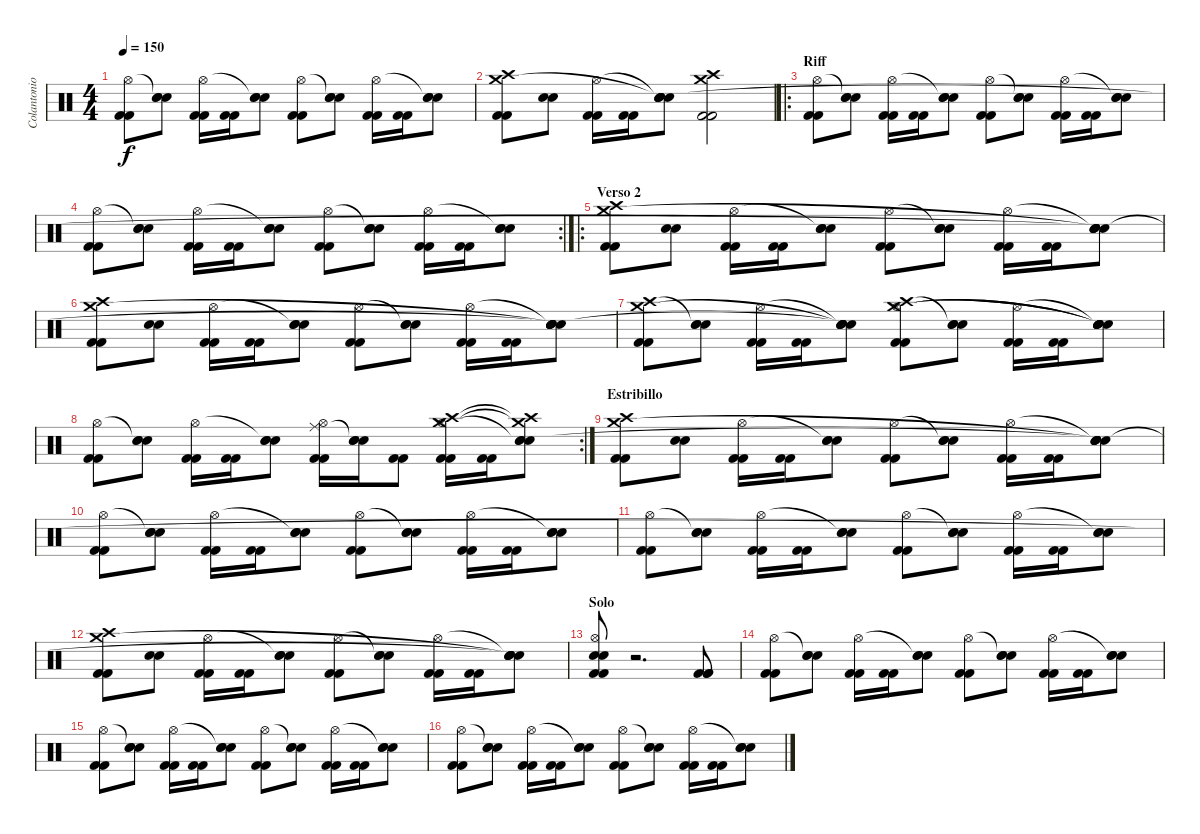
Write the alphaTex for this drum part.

\track ("Colantonio (Bateria)" "Colantonio") {instrument percussion}
\staff {score}
\articulation defaults
\ts (4 4)
\tempo 150
\clef neutral
\ks c
("Kick (hit) 2" "Kick (hit) 2" "Hi-Hat (open)").8{dy f} ("Snare (hit) 2" "Snare (hit) 2" "Snare (hit)"{t}).8 ("Kick (hit) 2" "Kick (hit) 2" "Hi-Hat (open)").16 ("Kick (hit) 2" "Kick (hit) 2").16 ("Snare (hit) 2" "Snare (hit) 2" "Snare (hit)"{t}).8 ("Kick (hit) 2" "Kick (hit) 2" "Hi-Hat (open)").8 ("Snare (hit) 2" "Snare (hit) 2" "Snare (hit)"{t}).8 ("Kick (hit) 2" "Kick (hit) 2" "Hi-Hat (open)").16 ("Kick (hit) 2" "Kick (hit) 2").16 ("Snare (hit) 2" "Snare (hit) 2" "Snare (hit)"{t}).8 |
("Kick (hit) 2" "Kick (hit) 2" "Crash high (hit)" "Crash medium (hit)").8 ("Snare (hit) 2" "Snare (hit) 2").8 ("Kick (hit) 2" "Kick (hit) 2" "Hi-Hat (open)").16 ("Kick (hit) 2" "Kick (hit) 2").16 ("Snare (hit) 2" "Snare (hit) 2" "Snare (hit)"{t} "Snare (hit)"{t} "Snare (hit)"{t}).8 ("Kick (hit) 2" "Kick (hit) 2" "Crash high (hit)" "Crash medium (hit)").2 |
\ro
\section ("" "Riff")
("Kick (hit) 2" "Kick (hit) 2" "Hi-Hat (open)").8 ("Snare (hit) 2" "Snare (hit) 2" "Snare (hit)"{t}).8 ("Kick (hit) 2" "Kick (hit) 2" "Hi-Hat (open)").16 ("Kick (hit) 2" "Kick (hit) 2").16 ("Snare (hit) 2" "Snare (hit) 2" "Snare (hit)"{t}).8 ("Kick (hit) 2" "Kick (hit) 2" "Hi-Hat (open)").8 ("Snare (hit) 2" "Snare (hit) 2" "Snare (hit)"{t}).8 ("Kick (hit) 2" "Kick (hit) 2" "Hi-Hat (open)").16 ("Kick (hit) 2" "Kick (hit) 2").16 ("Snare (hit) 2" "Snare (hit) 2" "Snare (hit)"{t}).8 |
\rc 2
("Kick (hit) 2" "Kick (hit) 2" "Hi-Hat (open)").8 ("Snare (hit) 2" "Snare (hit) 2" "Snare (hit)"{t}).8 ("Kick (hit) 2" "Kick (hit) 2" "Hi-Hat (open)").16 ("Kick (hit) 2" "Kick (hit) 2").16 ("Snare (hit) 2" "Snare (hit) 2" "Snare (hit)"{t}).8 ("Kick (hit) 2" "Kick (hit) 2" "Hi-Hat (open)").8 ("Snare (hit) 2" "Snare (hit) 2" "Snare (hit)"{t}).8 ("Kick (hit) 2" "Kick (hit) 2" "Hi-Hat (open)").16 ("Kick (hit) 2" "Kick (hit) 2").16 ("Snare (hit) 2" "Snare (hit) 2" "Snare (hit)"{t}).8 |
\ro
\section ("" "Verso 2")
("Kick (hit) 2" "Kick (hit) 2" "Crash high (hit)" "Crash medium (hit)").8 ("Snare (hit) 2" "Snare (hit) 2").8 ("Kick (hit) 2" "Kick (hit) 2" "Hi-Hat (open)").16 ("Kick (hit) 2" "Kick (hit) 2").16 ("Snare (hit) 2" "Snare (hit) 2" "Snare (hit)"{t}).8 ("Kick (hit) 2" "Kick (hit) 2" "Hi-Hat (open)").8 ("Snare (hit) 2" "Snare (hit) 2" "Snare (hit)"{t}).8 ("Kick (hit) 2" "Kick (hit) 2" "Hi-Hat (open)").16 ("Kick (hit) 2" "Kick (hit) 2").16 ("Snare (hit) 2" "Snare (hit) 2" "Snare (hit)"{t} "Snare (hit)"{t} "Snare (hit)"{t}).8 |
("Kick (hit) 2" "Kick (hit) 2" "Crash high (hit)" "Crash medium (hit)").8 ("Snare (hit) 2" "Snare (hit) 2").8 ("Kick (hit) 2" "Kick (hit) 2" "Hi-Hat (open)").16 ("Kick (hit) 2" "Kick (hit) 2").16 ("Snare (hit) 2" "Snare (hit) 2" "Snare (hit)"{t}).8 ("Kick (hit) 2" "Kick (hit) 2" "Hi-Hat (open)").8 ("Snare (hit) 2" "Snare (hit) 2" "Snare (hit)"{t}).8 ("Kick (hit) 2" "Kick (hit) 2" "Hi-Hat (open)").16 ("Kick (hit) 2" "Kick (hit) 2").16 ("Snare (hit) 2" "Snare (hit) 2" "Snare (hit)"{t} "Snare (hit)"{t} "Snare (hit)"{t}).8 |
("Kick (hit) 2" "Kick (hit) 2" "Crash high (hit)" "Crash medium (hit)").8 ("Snare (hit) 2" "Snare (hit) 2" "Snare (hit)"{t}).8 ("Kick (hit) 2" "Kick (hit) 2" "Hi-Hat (open)").16 ("Kick (hit) 2" "Kick (hit) 2").16 ("Snare (hit) 2" "Snare (hit) 2" "Snare (hit)"{t} "Snare (hit)"{t} "Snare (hit)"{t}).8 ("Kick (hit) 2" "Kick (hit) 2" "Crash high (hit)" "Hi-Hat (open)" "Crash medium (hit)").8 ("Snare (hit) 2" "Snare (hit) 2" "Snare (hit)"{t}).8 ("Kick (hit) 2" "Kick (hit) 2" "Hi-Hat (open)").16 ("Kick (hit) 2" "Kick (hit) 2").16 ("Snare (hit) 2" "Snare (hit) 2" "Snare (hit)"{t} "Snare (hit)"{t} "Snare (hit)"{t}).8 |
\rc 2
("Kick (hit) 2" "Kick (hit) 2" "Hi-Hat (open)").8 ("Snare (hit) 2" "Snare (hit) 2" "Snare (hit)"{t}).8 ("Kick (hit) 2" "Kick (hit) 2" "Hi-Hat (open)").16 ("Kick (hit) 2" "Kick (hit) 2").16 ("Snare (hit) 2" "Snare (hit) 2" "Snare (hit)"{t}).8 ("Kick (hit) 2" "Kick (hit) 2" "Ride (middle)" "Hi-Hat (open)").16 ("Snare (hit) 2" "Snare (hit) 2" "Snare (hit)"{t}).16 ("Kick (hit) 2" "Kick (hit) 2").8 ("Kick (hit) 2" "Kick (hit) 2" "Crash medium (hit)" "Crash high (hit)" "Hi-Hat (open)").16 ("Kick (hit) 2" "Kick (hit) 2").16 ("Snare (hit) 2" "Snare (hit) 2" "Crash medium (hit)"{t} "Crash high (hit)"{t} "Snare (hit)"{t}).8 |
\section ("" "Estribillo")
("Kick (hit) 2" "Kick (hit) 2" "Crash high (hit)" "Crash medium (hit)").8 ("Snare (hit) 2" "Snare (hit) 2").8 ("Kick (hit) 2" "Kick (hit) 2" "Hi-Hat (open)").16 ("Kick (hit) 2" "Kick (hit) 2").16 ("Snare (hit) 2" "Snare (hit) 2" "Snare (hit)"{t}).8 ("Kick (hit) 2" "Kick (hit) 2" "Hi-Hat (open)").8 ("Snare (hit) 2" "Snare (hit) 2" "Snare (hit)"{t}).8 ("Kick (hit) 2" "Kick (hit) 2" "Hi-Hat (open)").16 ("Kick (hit) 2" "Kick (hit) 2").16 ("Snare (hit) 2" "Snare (hit) 2" "Snare (hit)"{t} "Snare (hit)"{t} "Snare (hit)"{t}).8 |
("Kick (hit) 2" "Kick (hit) 2" "Hi-Hat (open)").8 ("Snare (hit) 2" "Snare (hit) 2" "Snare (hit)"{t}).8 ("Kick (hit) 2" "Kick (hit) 2" "Hi-Hat (open)").16 ("Kick (hit) 2" "Kick (hit) 2").16 ("Snare (hit) 2" "Snare (hit) 2" "Snare (hit)"{t}).8 ("Kick (hit) 2" "Kick (hit) 2" "Hi-Hat (open)").8 ("Snare (hit) 2" "Snare (hit) 2" "Snare (hit)"{t}).8 ("Kick (hit) 2" "Kick (hit) 2" "Hi-Hat (open)").16 ("Kick (hit) 2" "Kick (hit) 2").16 ("Snare (hit) 2" "Snare (hit) 2" "Snare (hit)"{t}).8 |
("Kick (hit) 2" "Kick (hit) 2" "Hi-Hat (open)").8 ("Snare (hit) 2" "Snare (hit) 2" "Snare (hit)"{t}).8 ("Kick (hit) 2" "Kick (hit) 2" "Hi-Hat (open)").16 ("Kick (hit) 2" "Kick (hit) 2").16 ("Snare (hit) 2" "Snare (hit) 2" "Snare (hit)"{t}).8 ("Kick (hit) 2" "Kick (hit) 2" "Hi-Hat (open)").8 ("Snare (hit) 2" "Snare (hit) 2" "Snare (hit)"{t}).8 ("Kick (hit) 2" "Kick (hit) 2" "Hi-Hat (open)").16 ("Kick (hit) 2" "Kick (hit) 2").16 ("Snare (hit) 2" "Snare (hit) 2" "Snare (hit)"{t}).8 |
("Kick (hit) 2" "Kick (hit) 2" "Crash high (hit)" "Crash medium (hit)").8 ("Snare (hit) 2" "Snare (hit) 2").8 ("Kick (hit) 2" "Kick (hit) 2" "Hi-Hat (open)").16 ("Kick (hit) 2" "Kick (hit) 2").16 ("Snare (hit) 2" "Snare (hit) 2" "Snare (hit)"{t}).8 ("Kick (hit) 2" "Kick (hit) 2" "Hi-Hat (open)").8 ("Snare (hit) 2" "Snare (hit) 2" "Snare (hit)"{t}).8 ("Kick (hit) 2" "Kick (hit) 2" "Hi-Hat (open)").16 ("Kick (hit) 2" "Kick (hit) 2").16 ("Snare (hit) 2" "Snare (hit) 2" "Snare (hit)"{t} "Snare (hit)"{t} "Snare (hit)"{t}).8 |
\section ("" "Solo")
("Hi-Hat (open)" "Snare (hit) 2" "Snare (hit) 2" "Kick (hit) 2" "Kick (hit) 2").8 r.2{d} ("Kick (hit) 2" "Kick (hit) 2" "Kick (hit) 2").8 |
("Kick (hit) 2" "Kick (hit) 2" "Hi-Hat (open)").8 ("Snare (hit) 2" "Snare (hit) 2" "Snare (hit)"{t}).8 ("Kick (hit) 2" "Kick (hit) 2" "Hi-Hat (open)").16 ("Kick (hit) 2" "Kick (hit) 2").16 ("Snare (hit) 2" "Snare (hit) 2" "Snare (hit)"{t}).8 ("Kick (hit) 2" "Kick (hit) 2" "Hi-Hat (open)").8 ("Snare (hit) 2" "Snare (hit) 2" "Snare (hit)"{t}).8 ("Kick (hit) 2" "Kick (hit) 2" "Hi-Hat (open)").16 ("Kick (hit) 2" "Kick (hit) 2").16 ("Snare (hit) 2" "Snare (hit) 2" "Snare (hit)"{t}).8 |
("Kick (hit) 2" "Kick (hit) 2" "Hi-Hat (open)").8 ("Snare (hit) 2" "Snare (hit) 2" "Snare (hit)"{t}).8 ("Kick (hit) 2" "Kick (hit) 2" "Hi-Hat (open)").16 ("Kick (hit) 2" "Kick (hit) 2").16 ("Snare (hit) 2" "Snare (hit) 2" "Snare (hit)"{t}).8 ("Kick (hit) 2" "Kick (hit) 2" "Hi-Hat (open)").8 ("Snare (hit) 2" "Snare (hit) 2" "Snare (hit)"{t}).8 ("Kick (hit) 2" "Kick (hit) 2" "Hi-Hat (open)").16 ("Kick (hit) 2" "Kick (hit) 2").16 ("Snare (hit) 2" "Snare (hit) 2" "Snare (hit)"{t}).8 |
("Kick (hit) 2" "Kick (hit) 2" "Hi-Hat (open)").8 ("Snare (hit) 2" "Snare (hit) 2" "Snare (hit)"{t}).8 ("Kick (hit) 2" "Kick (hit) 2" "Hi-Hat (open)").16 ("Kick (hit) 2" "Kick (hit) 2").16 ("Snare (hit) 2" "Snare (hit) 2" "Snare (hit)"{t}).8 ("Kick (hit) 2" "Kick (hit) 2" "Hi-Hat (open)").8 ("Snare (hit) 2" "Snare (hit) 2" "Snare (hit)"{t}).8 ("Kick (hit) 2" "Kick (hit) 2" "Hi-Hat (open)").16 ("Kick (hit) 2" "Kick (hit) 2").16 ("Snare (hit) 2" "Snare (hit) 2" "Snare (hit)"{t}).8
